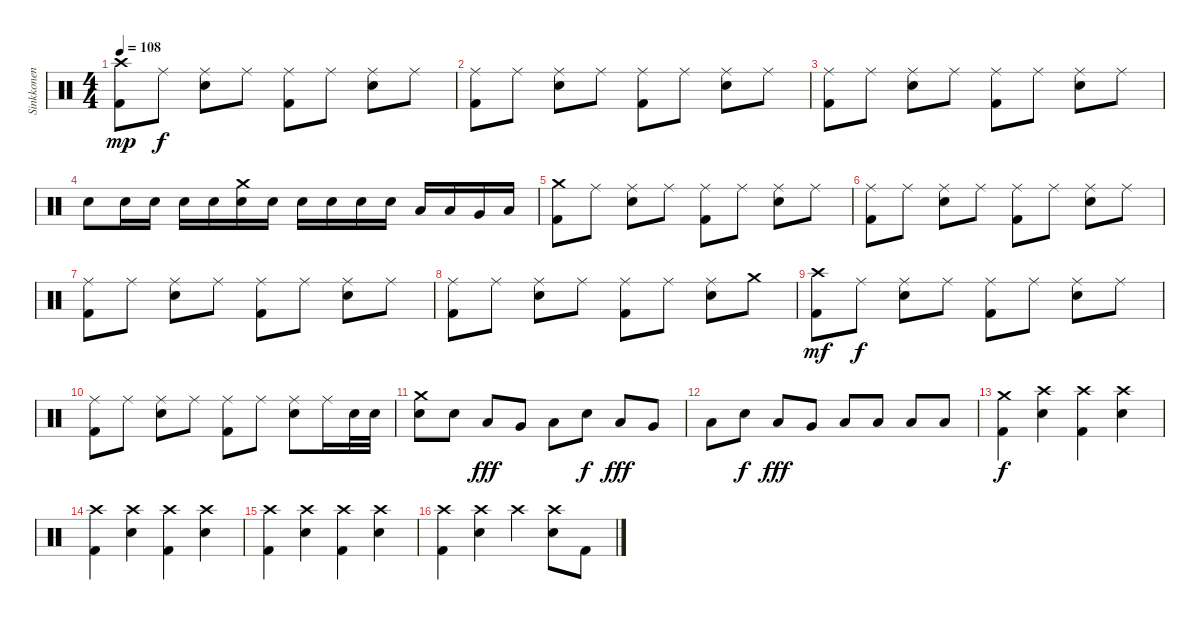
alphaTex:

\track ("Sinkkonen" "Sinkkonen") {instrument percussion}
\staff {score}
\articulation defaults
\ts (4 4)
\tempo 108
\clef neutral
\ks c
("Kick (hit) 2" "Crash high (hit)").8{dy mp} "Ride (middle)".8{dy f} ("Ride (middle)" "Snare (hit) 2").8 "Ride (middle)".8 ("Kick (hit) 2" "Ride (middle)").8 "Ride (middle)".8 ("Ride (middle)" "Snare (hit) 2").8 "Ride (middle)".8 |
("Kick (hit) 2" "Ride (middle)").8 "Ride (middle)".8 ("Ride (middle)" "Snare (hit) 2").8 "Ride (middle)".8 ("Kick (hit) 2" "Ride (middle)").8 "Ride (middle)".8 ("Ride (middle)" "Snare (hit) 2").8 "Ride (middle)".8 |
("Kick (hit) 2" "Ride (middle)").8 "Ride (middle)".8 ("Ride (middle)" "Snare (hit) 2").8 "Ride (middle)".8 ("Kick (hit) 2" "Ride (middle)").8 "Ride (middle)".8 ("Ride (middle)" "Snare (hit) 2").8 "Ride (middle)".8 |
"Snare (hit) 2".8 "Snare (hit) 2".16 "Snare (hit) 2".16 "Snare (hit) 2".16 "Snare (hit) 2".16 ("Crash medium (hit)" "Snare (hit) 2").16 "Snare (hit) 2".16 "Snare (hit) 2".16 "Snare (hit) 2".16 "Snare (hit) 2".16 "Snare (hit) 2".16 "Low Tom (hit)".16 "Low Tom (hit)".16 "Very Low Tom (hit)".16 "Low Floor Tom (hit)".16 |
("Kick (hit) 2" "Crash medium (hit)").8 "Ride (middle)".8 ("Ride (middle)" "Snare (hit) 2").8 "Ride (middle)".8 ("Kick (hit) 2" "Ride (middle)").8 "Ride (middle)".8 ("Ride (middle)" "Snare (hit) 2").8 "Ride (middle)".8 |
("Kick (hit) 2" "Ride (middle)").8 "Ride (middle)".8 ("Ride (middle)" "Snare (hit) 2").8 "Ride (middle)".8 ("Kick (hit) 2" "Ride (middle)").8 "Ride (middle)".8 ("Ride (middle)" "Snare (hit) 2").8 "Ride (middle)".8 |
("Kick (hit) 2" "Ride (middle)").8 "Ride (middle)".8 ("Ride (middle)" "Snare (hit) 2").8 "Ride (middle)".8 ("Kick (hit) 2" "Ride (middle)").8 "Ride (middle)".8 ("Ride (middle)" "Snare (hit) 2").8 "Ride (middle)".8 |
("Kick (hit) 2" "Ride (middle)").8 "Ride (middle)".8 ("Ride (middle)" "Snare (hit) 2").8 "Ride (middle)".8 ("Kick (hit) 2" "Ride (middle)").8 "Ride (middle)".8 ("Ride (middle)" "Snare (hit) 2").8 "Crash medium (hit)".8 |
("Kick (hit) 2" "Crash high (hit)").8{dy mf} "Ride (middle)".8{dy f} ("Ride (middle)" "Snare (hit) 2").8 "Ride (middle)".8 ("Kick (hit) 2" "Ride (middle)").8 "Ride (middle)".8 ("Ride (middle)" "Snare (hit) 2").8 "Ride (middle)".8 |
("Kick (hit) 2" "Ride (middle)").8 "Ride (middle)".8 ("Ride (middle)" "Snare (hit) 2").8 "Ride (middle)".8 ("Kick (hit) 2" "Ride (middle)").8 "Ride (middle)".8 ("Ride (middle)" "Snare (hit) 2").8 "Ride (middle)".16 "Snare (hit) 2".32 "Snare (hit) 2".32 |
("Crash medium (hit)" "Snare (hit) 2").8 "Snare (hit) 2".8 "Low Tom (hit)".8{dy fff} "Very Low Tom (hit)".8 "Low Floor Tom (hit)".8 "Snare (hit) 2".8{dy f} "Low Tom (hit)".8{dy fff} "Very Low Tom (hit)".8 |
"Low Floor Tom (hit)".8 "Snare (hit) 2".8{dy f} "Low Tom (hit)".8{dy fff} "Very Low Tom (hit)".8 "Low Floor Tom (hit)".8 "Low Floor Tom (hit)".8 "Low Floor Tom (hit)".8 "Low Floor Tom (hit)".8 |
("Kick (hit) 2" "Crash medium (hit)").4{dy f} ("Crash high (hit)" "Snare (hit) 2").4 ("Kick (hit) 2" "Crash high (hit)").4 ("Crash high (hit)" "Snare (hit) 2").4 |
("Kick (hit) 2" "Crash high (hit)").4 ("Crash high (hit)" "Snare (hit) 2").4 ("Kick (hit) 2" "Crash high (hit)").4 ("Crash high (hit)" "Snare (hit) 2").4 |
("Kick (hit) 2" "Crash high (hit)").4 ("Crash high (hit)" "Snare (hit) 2").4 ("Kick (hit) 2" "Crash high (hit)").4 ("Crash high (hit)" "Snare (hit) 2").4 |
("Kick (hit) 2" "Crash high (hit)").4 ("Crash high (hit)" "Snare (hit) 2").4 "Crash high (hit)".4 ("Crash high (hit)" "Snare (hit) 2").8 "Kick (hit) 2".8
